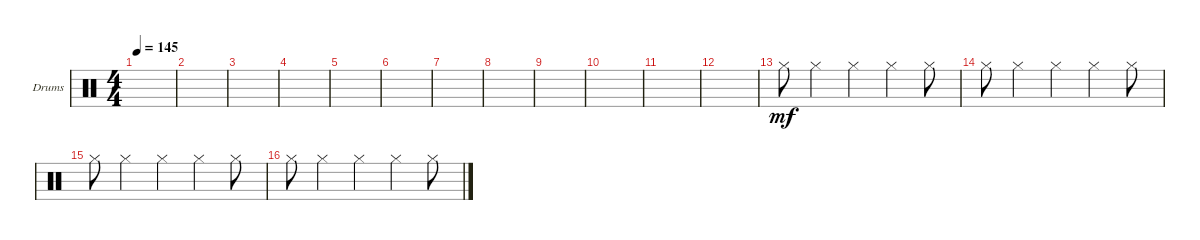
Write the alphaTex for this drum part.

\defaultSystemsLayout 4
\bracketExtendMode groupsimilarinstruments
\firstSystemTrackNameOrientation horizontal
\otherSystemsTrackNameOrientation horizontal
\track ("Drumkit" "Drums") {instrument percussion}
\staff {score}
\articulation defaults
\ts (4 4)
\tempo 145
\clef neutral
\ks c
|
|
|
|
|
|
|
|
|
|
|
|
"Hi-Hat (closed)".8{dy mf} "Hi-Hat (closed)".4 "Hi-Hat (closed)".4 "Hi-Hat (closed)".4 "Hi-Hat (closed)".8 |
"Hi-Hat (closed)".8 "Hi-Hat (closed)".4 "Hi-Hat (closed)".4 "Hi-Hat (closed)".4 "Hi-Hat (closed)".8 |
"Hi-Hat (closed)".8 "Hi-Hat (closed)".4 "Hi-Hat (closed)".4 "Hi-Hat (closed)".4 "Hi-Hat (closed)".8 |
"Hi-Hat (closed)".8 "Hi-Hat (closed)".4 "Hi-Hat (closed)".4 "Hi-Hat (closed)".4 "Hi-Hat (closed)".8
